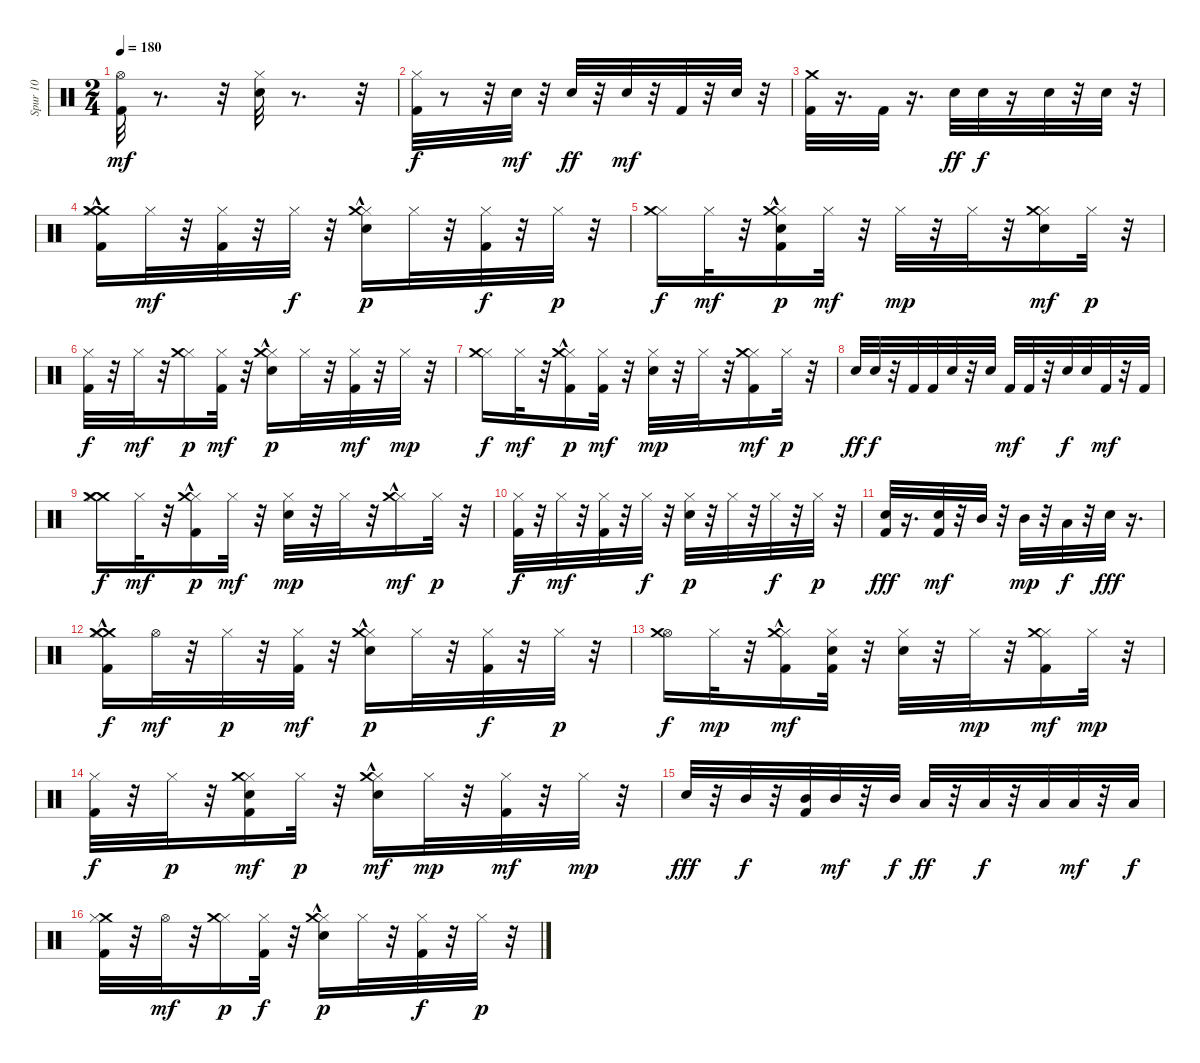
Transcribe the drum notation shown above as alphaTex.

\track ("Spur 10" "Spur 10") {instrument percussion}
\staff {score}
\articulation defaults
\ts (2 4)
\tempo 180
\clef neutral
\ks c
("Hi-Hat (open)" "Kick (hit) 2").32{dy mf} r.8{d} r.32 ("Electric Snare (hit)" "Hi-Hat (closed)").32 r.8{d} r.32 |
("Hi-Hat (closed)" "Kick (hit) 2").32{dy f} r.8 r.32 "Electric Snare (hit)".32{dy mf} r.32 "Electric Snare (hit)".32{dy ff} r.32 "Electric Snare (hit)".32{dy mf} r.32 "Kick (hit) 2".32 r.32 "Electric Snare (hit)".32 r.32 |
("Crash medium (hit)" "Kick (hit) 2").32 r.16{d} "Kick (hit) 2".32 r.16{d} "Electric Snare (hit)".32{dy ff} "Electric Snare (hit)".32{dy f} r.16 "Electric Snare (hit)".32 r.32 "Electric Snare (hit)".32 r.32 |
("Crash medium (hit)" "Hi-Hat (closed)" "Crash medium (hit)"{hac} "Kick (hit) 2").16 "Hi-Hat (closed)".32{dy mf} r.32 ("Hi-Hat (closed)" "Kick (hit) 2").32 r.32 "Hi-Hat (closed)".32{dy f} r.32 ("Electric Snare (hit)" "Hi-Hat (closed)" "Crash medium (hit)"{hac}).16{dy p} "Hi-Hat (closed)".32 r.32 ("Hi-Hat (closed)" "Kick (hit) 2").32{dy f} r.32 "Hi-Hat (closed)".32{dy p} r.32 |
("Hi-Hat (closed)" "Crash medium (hit)").16{dy f} "Hi-Hat (closed)".32{dy mf} r.32 ("Electric Snare (hit)" "Hi-Hat (closed)" "Crash medium (hit)"{hac} "Kick (hit) 2").16{dy p} "Hi-Hat (closed)".32{dy mf} r.32 "Hi-Hat (closed)".32{dy mp} r.32 "Hi-Hat (closed)".32 r.32 ("Electric Snare (hit)" "Hi-Hat (closed)" "Crash medium (hit)").16{dy mf} "Hi-Hat (closed)".32{dy p} r.32 |
("Hi-Hat (closed)" "Kick (hit) 2").32{dy f} r.32 "Hi-Hat (closed)".32{dy mf} r.32 ("Hi-Hat (closed)" "Crash medium (hit)").16{dy p} ("Hi-Hat (closed)" "Kick (hit) 2").32{dy mf} r.32 ("Electric Snare (hit)" "Hi-Hat (closed)" "Crash medium (hit)"{hac}).16{dy p} "Hi-Hat (closed)".32 r.32 ("Hi-Hat (closed)" "Kick (hit) 2").32{dy mf} r.32 "Hi-Hat (closed)".32{dy mp} r.32 |
("Hi-Hat (closed)" "Crash medium (hit)").16{dy f} "Hi-Hat (closed)".32{dy mf} r.32 ("Hi-Hat (closed)" "Crash medium (hit)"{hac} "Kick (hit) 2").16{dy p} ("Hi-Hat (closed)" "Kick (hit) 2").32{dy mf} r.32 ("Electric Snare (hit)" "Hi-Hat (closed)").32{dy mp} r.32 "Hi-Hat (closed)".32 r.32 ("Hi-Hat (closed)" "Crash medium (hit)" "Kick (hit) 2").16{dy mf} "Hi-Hat (closed)".32{dy p} r.32 |
"Electric Snare (hit)".32{dy ff} "Electric Snare (hit)".32{dy f} r.32 "Kick (hit) 2".32 "Kick (hit) 2".32 "Electric Snare (hit)".32 r.32 "Electric Snare (hit)".32 "Kick (hit) 2".32{dy mf} "Kick (hit) 2".32 r.32 "Electric Snare (hit)".32{dy f} "Electric Snare (hit)".32 "Kick (hit) 2".32{dy mf} r.32 "Kick (hit) 2".32 |
("Crash medium (hit)" "Hi-Hat (closed)" "Crash medium (hit)").16{dy f} "Hi-Hat (closed)".32{dy mf} r.32 ("Hi-Hat (closed)" "Crash medium (hit)"{hac} "Kick (hit) 2").16{dy p} "Hi-Hat (closed)".32{dy mf} r.32 ("Electric Snare (hit)" "Hi-Hat (closed)").32{dy mp} r.32 "Hi-Hat (closed)".32 r.32 ("Hi-Hat (closed)" "Crash medium (hit)"{hac}).16{dy mf} "Hi-Hat (closed)".32{dy p} r.32 |
("Hi-Hat (closed)" "Kick (hit) 2").32{dy f} r.32 "Hi-Hat (closed)".32{dy mf} r.32 ("Hi-Hat (closed)" "Kick (hit) 2").32 r.32 "Hi-Hat (closed)".32{dy f} r.32 ("Electric Snare (hit)" "Hi-Hat (closed)").32{dy p} r.32 "Hi-Hat (closed)".32 r.32 "Hi-Hat (closed)".32{dy f} r.32 "Hi-Hat (closed)".32{dy p} r.32 |
("Electric Snare (hit)" "Kick (hit) 2").32{dy fff} r.16{d} ("Electric Snare (hit)" "Kick (hit) 2").32{dy mf} r.32 "Mid Tom (hit)".32 r.32 "Mid Tom (hit)".32{dy mp} r.32 "Low Tom (hit)".32{dy f} r.32 "Electric Snare (hit)".32{dy fff} r.16{d} |
("Crash medium (hit)" "Hi-Hat (closed)" "Crash medium (hit)"{hac} "Kick (hit) 2").16{dy f} "Hi-Hat (open)".32{dy mf} r.32 "Hi-Hat (closed)".32{dy p} r.32 ("Hi-Hat (closed)" "Kick (hit) 2").32{dy mf} r.32 ("Electric Snare (hit)" "Hi-Hat (closed)" "Crash medium (hit)"{hac}).16{dy p} "Hi-Hat (closed)".32 r.32 ("Hi-Hat (closed)" "Kick (hit) 2").32{dy f} r.32 "Hi-Hat (closed)".32{dy p} r.32 |
("Hi-Hat (open)" "Crash medium (hit)").16{dy f} "Hi-Hat (closed)".32{dy mp} r.32 ("Hi-Hat (closed)" "Crash medium (hit)"{hac} "Kick (hit) 2").16{dy mf} ("Electric Snare (hit)" "Hi-Hat (closed)" "Kick (hit) 2").32 r.32 ("Electric Snare (hit)" "Hi-Hat (closed)").32 r.32 "Hi-Hat (closed)".32{dy mp} r.32 ("Hi-Hat (closed)" "Crash medium (hit)" "Kick (hit) 2").16{dy mf} "Hi-Hat (closed)".32{dy mp} r.32 |
("Hi-Hat (closed)" "Kick (hit) 2").32{dy f} r.32 "Hi-Hat (closed)".32{dy p} r.32 ("Electric Snare (hit)" "Hi-Hat (closed)" "Crash medium (hit)" "Kick (hit) 2").16{dy mf} "Hi-Hat (closed)".32{dy p} r.32 ("Electric Snare (hit)" "Hi-Hat (closed)" "Crash medium (hit)"{hac}).16{dy mf} "Hi-Hat (closed)".32{dy mp} r.32 ("Hi-Hat (closed)" "Kick (hit) 2").32{dy mf} r.32 "Hi-Hat (closed)".32{dy mp} r.32 |
"Electric Snare (hit)".32{dy fff} r.32 "Mid Tom (hit)".32{dy f} r.32 ("Mid Tom (hit)" "Kick (hit) 2").32 "Mid Tom (hit)".32{dy mf} r.32 "Mid Tom (hit)".32{dy f} "Low Tom (hit)".32{dy ff} r.32 "Low Tom (hit)".32{dy f} r.32 "Low Floor Tom (hit)".32 "Low Floor Tom (hit)".32{dy mf} r.32 "Low Floor Tom (hit)".32{dy f} |
("Crash medium (hit)" "Hi-Hat (closed)" "Kick (hit) 2").32 r.32 "Hi-Hat (open)".32{dy mf} r.32 ("Hi-Hat (closed)" "Crash medium (hit)").16{dy p} ("Hi-Hat (closed)" "Kick (hit) 2").32{dy f} r.32 ("Electric Snare (hit)" "Hi-Hat (closed)" "Crash medium (hit)"{hac}).16{dy p} "Hi-Hat (closed)".32 r.32 ("Hi-Hat (closed)" "Kick (hit) 2").32{dy f} r.32 "Hi-Hat (closed)".32{dy p} r.32
